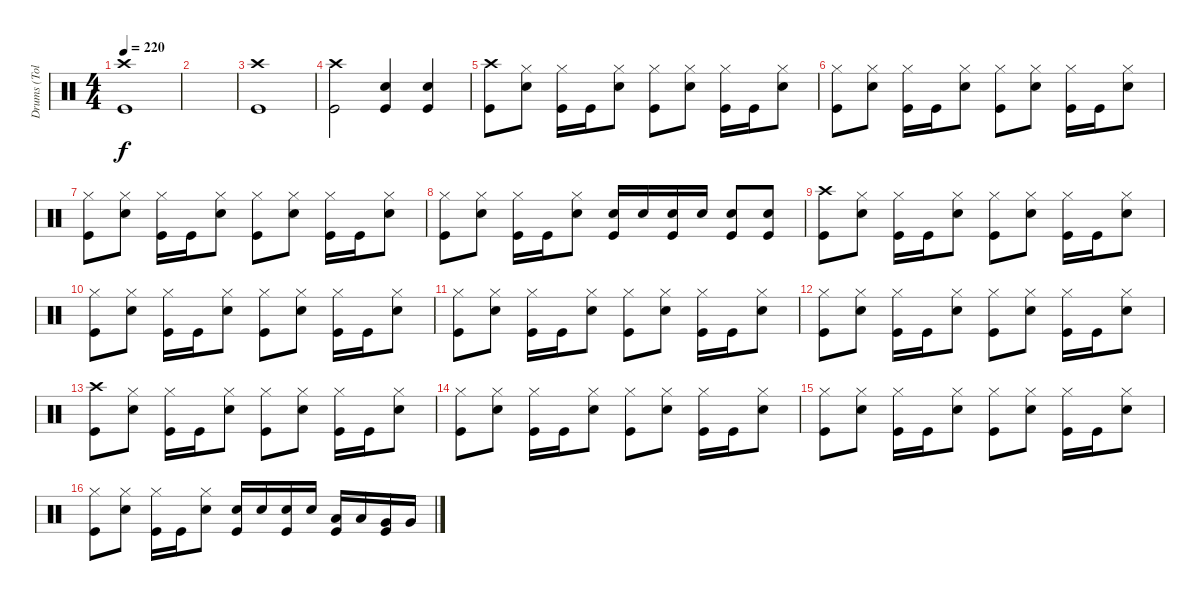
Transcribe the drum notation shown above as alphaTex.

\track ("Drums (Tolik)" "Drums (Tol") {instrument percussion}
\staff {score}
\articulation defaults
\ts (4 4)
\tempo 220
\clef neutral
\ks c
("Crash high (hit)" "Kick (hit)").1{dy f} |
|
("Crash high (hit)" "Kick (hit)").1 |
("Crash high (hit)" "Kick (hit)").2 ("Electric Snare (hit)" "Kick (hit)").4 ("Electric Snare (hit)" "Kick (hit)").4 |
("Crash high (hit)" "Kick (hit)").8 ("Hi-Hat (closed)" "Electric Snare (hit)").8 ("Hi-Hat (closed)" "Kick (hit)").16 "Kick (hit)".16 ("Hi-Hat (closed)" "Electric Snare (hit)").8 ("Hi-Hat (closed)" "Kick (hit)").8 ("Hi-Hat (closed)" "Electric Snare (hit)").8 ("Hi-Hat (closed)" "Kick (hit)").16 "Kick (hit)".16 ("Hi-Hat (closed)" "Electric Snare (hit)").8 |
("Hi-Hat (closed)" "Kick (hit)").8 ("Hi-Hat (closed)" "Electric Snare (hit)").8 ("Hi-Hat (closed)" "Kick (hit)").16 "Kick (hit)".16 ("Hi-Hat (closed)" "Electric Snare (hit)").8 ("Hi-Hat (closed)" "Kick (hit)").8 ("Hi-Hat (closed)" "Electric Snare (hit)").8 ("Hi-Hat (closed)" "Kick (hit)").16 "Kick (hit)".16 ("Hi-Hat (closed)" "Electric Snare (hit)").8 |
("Hi-Hat (closed)" "Kick (hit)").8 ("Hi-Hat (closed)" "Electric Snare (hit)").8 ("Hi-Hat (closed)" "Kick (hit)").16 "Kick (hit)".16 ("Hi-Hat (closed)" "Electric Snare (hit)").8 ("Hi-Hat (closed)" "Kick (hit)").8 ("Hi-Hat (closed)" "Electric Snare (hit)").8 ("Hi-Hat (closed)" "Kick (hit)").16 "Kick (hit)".16 ("Hi-Hat (closed)" "Electric Snare (hit)").8 |
("Hi-Hat (closed)" "Kick (hit)").8 ("Hi-Hat (closed)" "Electric Snare (hit)").8 ("Hi-Hat (closed)" "Kick (hit)").16 "Kick (hit)".16 ("Hi-Hat (closed)" "Electric Snare (hit)").8 ("Kick (hit)" "Electric Snare (hit)").16 "Electric Snare (hit)".16 ("Kick (hit)" "Electric Snare (hit)").16 "Electric Snare (hit)".16 ("Kick (hit)" "Electric Snare (hit)").8 ("Kick (hit)" "Electric Snare (hit)").8 |
("Crash high (hit)" "Kick (hit)").8 ("Hi-Hat (closed)" "Electric Snare (hit)").8 ("Hi-Hat (closed)" "Kick (hit)").16 "Kick (hit)".16 ("Hi-Hat (closed)" "Electric Snare (hit)").8 ("Hi-Hat (closed)" "Kick (hit)").8 ("Hi-Hat (closed)" "Electric Snare (hit)").8 ("Hi-Hat (closed)" "Kick (hit)").16 "Kick (hit)".16 ("Hi-Hat (closed)" "Electric Snare (hit)").8 |
("Hi-Hat (closed)" "Kick (hit)").8 ("Hi-Hat (closed)" "Electric Snare (hit)").8 ("Hi-Hat (closed)" "Kick (hit)").16 "Kick (hit)".16 ("Hi-Hat (closed)" "Electric Snare (hit)").8 ("Hi-Hat (closed)" "Kick (hit)").8 ("Hi-Hat (closed)" "Electric Snare (hit)").8 ("Hi-Hat (closed)" "Kick (hit)").16 "Kick (hit)".16 ("Hi-Hat (closed)" "Electric Snare (hit)").8 |
("Hi-Hat (closed)" "Kick (hit)").8 ("Hi-Hat (closed)" "Electric Snare (hit)").8 ("Hi-Hat (closed)" "Kick (hit)").16 "Kick (hit)".16 ("Hi-Hat (closed)" "Electric Snare (hit)").8 ("Hi-Hat (closed)" "Kick (hit)").8 ("Hi-Hat (closed)" "Electric Snare (hit)").8 ("Hi-Hat (closed)" "Kick (hit)").16 "Kick (hit)".16 ("Hi-Hat (closed)" "Electric Snare (hit)").8 |
("Hi-Hat (closed)" "Kick (hit)").8 ("Hi-Hat (closed)" "Electric Snare (hit)").8 ("Hi-Hat (closed)" "Kick (hit)").16 "Kick (hit)".16 ("Hi-Hat (closed)" "Electric Snare (hit)").8 ("Hi-Hat (closed)" "Kick (hit)").8 ("Hi-Hat (closed)" "Electric Snare (hit)").8 ("Hi-Hat (closed)" "Kick (hit)").16 "Kick (hit)".16 ("Hi-Hat (closed)" "Electric Snare (hit)").8 |
("Crash high (hit)" "Kick (hit)").8 ("Hi-Hat (closed)" "Electric Snare (hit)").8 ("Hi-Hat (closed)" "Kick (hit)").16 "Kick (hit)".16 ("Hi-Hat (closed)" "Electric Snare (hit)").8 ("Hi-Hat (closed)" "Kick (hit)").8 ("Hi-Hat (closed)" "Electric Snare (hit)").8 ("Hi-Hat (closed)" "Kick (hit)").16 "Kick (hit)".16 ("Hi-Hat (closed)" "Electric Snare (hit)").8 |
("Hi-Hat (closed)" "Kick (hit)").8 ("Hi-Hat (closed)" "Electric Snare (hit)").8 ("Hi-Hat (closed)" "Kick (hit)").16 "Kick (hit)".16 ("Hi-Hat (closed)" "Electric Snare (hit)").8 ("Hi-Hat (closed)" "Kick (hit)").8 ("Hi-Hat (closed)" "Electric Snare (hit)").8 ("Hi-Hat (closed)" "Kick (hit)").16 "Kick (hit)".16 ("Hi-Hat (closed)" "Electric Snare (hit)").8 |
("Hi-Hat (closed)" "Kick (hit)").8 ("Hi-Hat (closed)" "Electric Snare (hit)").8 ("Hi-Hat (closed)" "Kick (hit)").16 "Kick (hit)".16 ("Hi-Hat (closed)" "Electric Snare (hit)").8 ("Hi-Hat (closed)" "Kick (hit)").8 ("Hi-Hat (closed)" "Electric Snare (hit)").8 ("Hi-Hat (closed)" "Kick (hit)").16 "Kick (hit)".16 ("Hi-Hat (closed)" "Electric Snare (hit)").8 |
("Hi-Hat (closed)" "Kick (hit)").8 ("Hi-Hat (closed)" "Electric Snare (hit)").8 ("Hi-Hat (closed)" "Kick (hit)").16 "Kick (hit)".16 ("Hi-Hat (closed)" "Electric Snare (hit)").8 ("Kick (hit)" "Electric Snare (hit)").16 "Electric Snare (hit)".16 ("Kick (hit)" "Electric Snare (hit)").16 "Electric Snare (hit)".16 ("Kick (hit)" "Low Tom (hit)").16 "Low Tom (hit)".16 ("Kick (hit)" "Very Low Tom (hit)").16 "Very Low Tom (hit)".16
